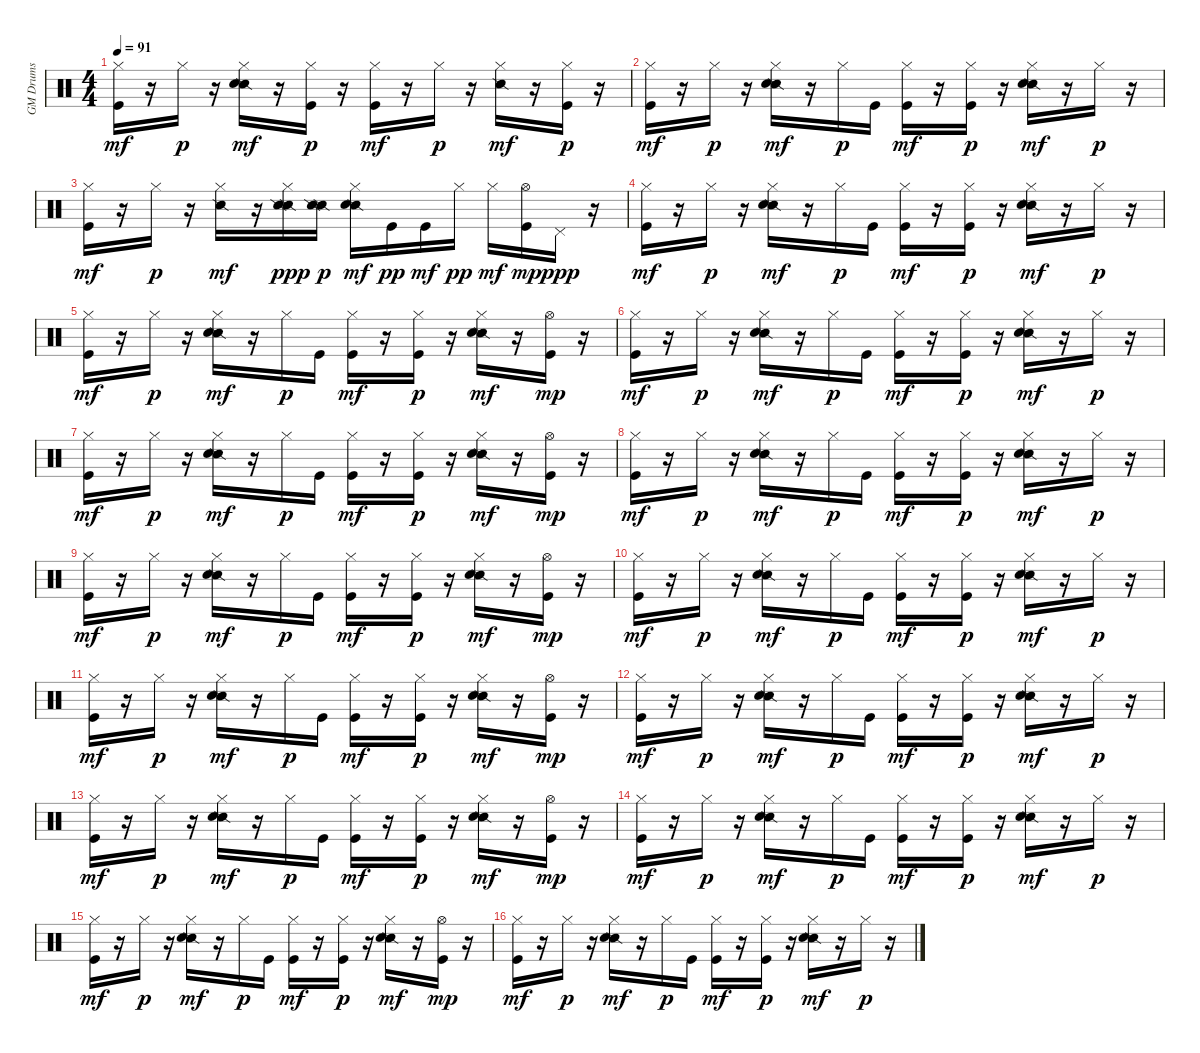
\track ("GM Drums" "GM Drums") {instrument percussion}
\staff {score}
\articulation defaults
\ts (4 4)
\tempo 91
\clef neutral
\ks c
("Kick (hit)" "Hi-Hat (closed)").16{dy mf} r.16 "Hi-Hat (closed)".16{dy p} r.16 ("Snare (side stick) 2" "Electric Snare (hit)" "Hi-Hat (closed)").16{dy mf} r.16 ("Kick (hit)" "Hi-Hat (closed)").16{dy p} r.16 ("Kick (hit)" "Hi-Hat (closed)").16{dy mf} r.16 "Hi-Hat (closed)".16{dy p} r.16 ("Snare (side stick) 2" "Hi-Hat (closed)").16{dy mf} r.16 ("Kick (hit)" "Hi-Hat (closed)").16{dy p} r.16 |
("Kick (hit)" "Hi-Hat (closed)").16{dy mf} r.16 "Hi-Hat (closed)".16{dy p} r.16 ("Snare (side stick) 2" "Electric Snare (hit)" "Hi-Hat (closed)").16{dy mf} r.16 "Hi-Hat (closed)".16{dy p} "Kick (hit)".16 ("Kick (hit)" "Hi-Hat (closed)").16{dy mf} r.16 ("Kick (hit)" "Hi-Hat (closed)").16{dy p} r.16 ("Snare (side stick) 2" "Electric Snare (hit)" "Hi-Hat (closed)").16{dy mf} r.16 "Hi-Hat (closed)".16{dy p} r.16 |
("Kick (hit)" "Hi-Hat (closed)").16{dy mf} r.16 "Hi-Hat (closed)".16{dy p} r.16 ("Snare (side stick) 2" "Hi-Hat (closed)").16{dy mf} r.16 ("Snare (side stick) 2" "Hi-Hat (closed)" "Snare (side stick) 2").16{dy ppp} ("Snare (side stick) 2" "Snare (side stick) 2").16{dy p} ("Snare (side stick) 2" "Electric Snare (hit)" "Hi-Hat (closed)").16{dy mf} "Kick (hit)".16{dy pp} "Kick (hit)".16{dy mf} "Hi-Hat (closed)".16{dy pp} "Hi-Hat (closed)".16{dy mf} ("Kick (hit)" "Hi-Hat (open)").16{dy mp} "Pedal Hi-Hat (hit)".16{dy ppp} r.16 |
("Kick (hit)" "Hi-Hat (closed)").16{dy mf} r.16 "Hi-Hat (closed)".16{dy p} r.16 ("Snare (side stick) 2" "Electric Snare (hit)" "Hi-Hat (closed)").16{dy mf} r.16 "Hi-Hat (closed)".16{dy p} "Kick (hit)".16 ("Kick (hit)" "Hi-Hat (closed)").16{dy mf} r.16 ("Kick (hit)" "Hi-Hat (closed)").16{dy p} r.16 ("Snare (side stick) 2" "Electric Snare (hit)" "Hi-Hat (closed)").16{dy mf} r.16 "Hi-Hat (closed)".16{dy p} r.16 |
("Kick (hit)" "Hi-Hat (closed)").16{dy mf} r.16 "Hi-Hat (closed)".16{dy p} r.16 ("Snare (side stick) 2" "Electric Snare (hit)" "Hi-Hat (closed)").16{dy mf} r.16 "Hi-Hat (closed)".16{dy p} "Kick (hit)".16 ("Kick (hit)" "Hi-Hat (closed)").16{dy mf} r.16 ("Kick (hit)" "Hi-Hat (closed)").16{dy p} r.16 ("Snare (side stick) 2" "Electric Snare (hit)" "Hi-Hat (closed)").16{dy mf} r.16 ("Kick (hit)" "Hi-Hat (open)").16{dy mp} r.16 |
("Kick (hit)" "Hi-Hat (closed)").16{dy mf} r.16 "Hi-Hat (closed)".16{dy p} r.16 ("Snare (side stick) 2" "Electric Snare (hit)" "Hi-Hat (closed)").16{dy mf} r.16 "Hi-Hat (closed)".16{dy p} "Kick (hit)".16 ("Kick (hit)" "Hi-Hat (closed)").16{dy mf} r.16 ("Kick (hit)" "Hi-Hat (closed)").16{dy p} r.16 ("Snare (side stick) 2" "Electric Snare (hit)" "Hi-Hat (closed)").16{dy mf} r.16 "Hi-Hat (closed)".16{dy p} r.16 |
("Kick (hit)" "Hi-Hat (closed)").16{dy mf} r.16 "Hi-Hat (closed)".16{dy p} r.16 ("Snare (side stick) 2" "Electric Snare (hit)" "Hi-Hat (closed)").16{dy mf} r.16 "Hi-Hat (closed)".16{dy p} "Kick (hit)".16 ("Kick (hit)" "Hi-Hat (closed)").16{dy mf} r.16 ("Kick (hit)" "Hi-Hat (closed)").16{dy p} r.16 ("Snare (side stick) 2" "Electric Snare (hit)" "Hi-Hat (closed)").16{dy mf} r.16 ("Kick (hit)" "Hi-Hat (open)").16{dy mp} r.16 |
("Kick (hit)" "Hi-Hat (closed)").16{dy mf} r.16 "Hi-Hat (closed)".16{dy p} r.16 ("Snare (side stick) 2" "Electric Snare (hit)" "Hi-Hat (closed)").16{dy mf} r.16 "Hi-Hat (closed)".16{dy p} "Kick (hit)".16 ("Kick (hit)" "Hi-Hat (closed)").16{dy mf} r.16 ("Kick (hit)" "Hi-Hat (closed)").16{dy p} r.16 ("Snare (side stick) 2" "Electric Snare (hit)" "Hi-Hat (closed)").16{dy mf} r.16 "Hi-Hat (closed)".16{dy p} r.16 |
("Kick (hit)" "Hi-Hat (closed)").16{dy mf} r.16 "Hi-Hat (closed)".16{dy p} r.16 ("Snare (side stick) 2" "Electric Snare (hit)" "Hi-Hat (closed)").16{dy mf} r.16 "Hi-Hat (closed)".16{dy p} "Kick (hit)".16 ("Kick (hit)" "Hi-Hat (closed)").16{dy mf} r.16 ("Kick (hit)" "Hi-Hat (closed)").16{dy p} r.16 ("Snare (side stick) 2" "Electric Snare (hit)" "Hi-Hat (closed)").16{dy mf} r.16 ("Kick (hit)" "Hi-Hat (open)").16{dy mp} r.16 |
("Kick (hit)" "Hi-Hat (closed)").16{dy mf} r.16 "Hi-Hat (closed)".16{dy p} r.16 ("Snare (side stick) 2" "Electric Snare (hit)" "Hi-Hat (closed)").16{dy mf} r.16 "Hi-Hat (closed)".16{dy p} "Kick (hit)".16 ("Kick (hit)" "Hi-Hat (closed)").16{dy mf} r.16 ("Kick (hit)" "Hi-Hat (closed)").16{dy p} r.16 ("Snare (side stick) 2" "Electric Snare (hit)" "Hi-Hat (closed)").16{dy mf} r.16 "Hi-Hat (closed)".16{dy p} r.16 |
("Kick (hit)" "Hi-Hat (closed)").16{dy mf} r.16 "Hi-Hat (closed)".16{dy p} r.16 ("Snare (side stick) 2" "Electric Snare (hit)" "Hi-Hat (closed)").16{dy mf} r.16 "Hi-Hat (closed)".16{dy p} "Kick (hit)".16 ("Kick (hit)" "Hi-Hat (closed)").16{dy mf} r.16 ("Kick (hit)" "Hi-Hat (closed)").16{dy p} r.16 ("Snare (side stick) 2" "Electric Snare (hit)" "Hi-Hat (closed)").16{dy mf} r.16 ("Kick (hit)" "Hi-Hat (open)").16{dy mp} r.16 |
("Kick (hit)" "Hi-Hat (closed)").16{dy mf} r.16 "Hi-Hat (closed)".16{dy p} r.16 ("Snare (side stick) 2" "Electric Snare (hit)" "Hi-Hat (closed)").16{dy mf} r.16 "Hi-Hat (closed)".16{dy p} "Kick (hit)".16 ("Kick (hit)" "Hi-Hat (closed)").16{dy mf} r.16 ("Kick (hit)" "Hi-Hat (closed)").16{dy p} r.16 ("Snare (side stick) 2" "Electric Snare (hit)" "Hi-Hat (closed)").16{dy mf} r.16 "Hi-Hat (closed)".16{dy p} r.16 |
("Kick (hit)" "Hi-Hat (closed)").16{dy mf} r.16 "Hi-Hat (closed)".16{dy p} r.16 ("Snare (side stick) 2" "Electric Snare (hit)" "Hi-Hat (closed)").16{dy mf} r.16 "Hi-Hat (closed)".16{dy p} "Kick (hit)".16 ("Kick (hit)" "Hi-Hat (closed)").16{dy mf} r.16 ("Kick (hit)" "Hi-Hat (closed)").16{dy p} r.16 ("Snare (side stick) 2" "Electric Snare (hit)" "Hi-Hat (closed)").16{dy mf} r.16 ("Kick (hit)" "Hi-Hat (open)").16{dy mp} r.16 |
("Kick (hit)" "Hi-Hat (closed)").16{dy mf} r.16 "Hi-Hat (closed)".16{dy p} r.16 ("Snare (side stick) 2" "Electric Snare (hit)" "Hi-Hat (closed)").16{dy mf} r.16 "Hi-Hat (closed)".16{dy p} "Kick (hit)".16 ("Kick (hit)" "Hi-Hat (closed)").16{dy mf} r.16 ("Kick (hit)" "Hi-Hat (closed)").16{dy p} r.16 ("Snare (side stick) 2" "Electric Snare (hit)" "Hi-Hat (closed)").16{dy mf} r.16 "Hi-Hat (closed)".16{dy p} r.16 |
("Kick (hit)" "Hi-Hat (closed)").16{dy mf} r.16 "Hi-Hat (closed)".16{dy p} r.16 ("Snare (side stick) 2" "Electric Snare (hit)" "Hi-Hat (closed)").16{dy mf} r.16 "Hi-Hat (closed)".16{dy p} "Kick (hit)".16 ("Kick (hit)" "Hi-Hat (closed)").16{dy mf} r.16 ("Kick (hit)" "Hi-Hat (closed)").16{dy p} r.16 ("Snare (side stick) 2" "Electric Snare (hit)" "Hi-Hat (closed)").16{dy mf} r.16 ("Kick (hit)" "Hi-Hat (open)").16{dy mp} r.16 |
("Kick (hit)" "Hi-Hat (closed)").16{dy mf} r.16 "Hi-Hat (closed)".16{dy p} r.16 ("Snare (side stick) 2" "Electric Snare (hit)" "Hi-Hat (closed)").16{dy mf} r.16 "Hi-Hat (closed)".16{dy p} "Kick (hit)".16 ("Kick (hit)" "Hi-Hat (closed)").16{dy mf} r.16 ("Kick (hit)" "Hi-Hat (closed)").16{dy p} r.16 ("Snare (side stick) 2" "Electric Snare (hit)" "Hi-Hat (closed)").16{dy mf} r.16 "Hi-Hat (closed)".16{dy p} r.16
